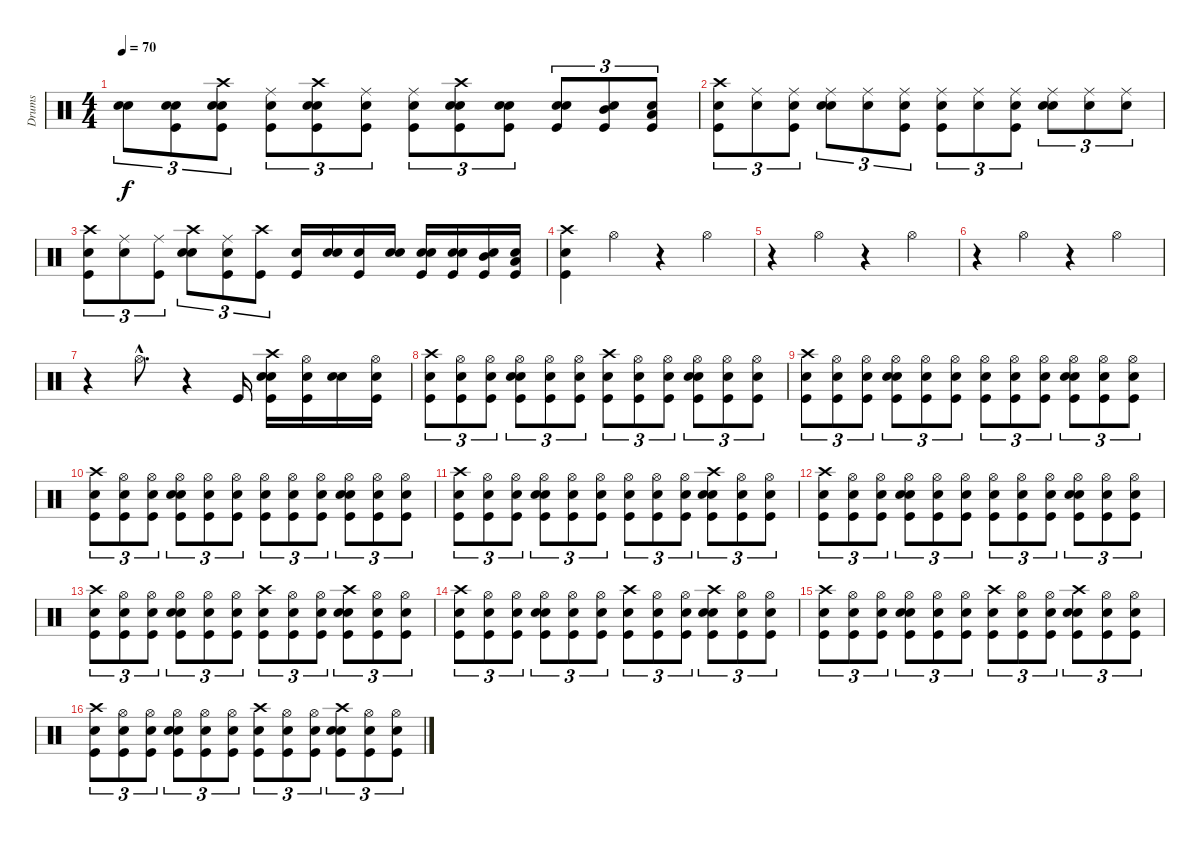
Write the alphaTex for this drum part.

\track ("Drums" "Drums") {instrument percussion}
\staff {score}
\articulation defaults
\ts (4 4)
\tempo 70
\clef neutral
\ks c
("Snare (hit)" "Snare (hit) 2").8{tu (3 2) dy f} ("Snare (hit)" "Snare (hit) 2" "Kick (hit)").8{tu (3 2)} ("Snare (hit)" "Crash high (hit)" "Snare (hit) 2" "Kick (hit)").8{tu (3 2)} ("Snare (hit)" "Ride (middle)" "Kick (hit)").8{tu (3 2)} ("Snare (hit)" "Kick (hit)" "Snare (hit) 2" "Crash high (hit)").8{tu (3 2)} ("Snare (hit)" "Ride (middle)" "Kick (hit)").8{tu (3 2)} ("Snare (hit)" "Ride (middle)" "Kick (hit)").8{tu (3 2)} ("Snare (hit)" "Kick (hit)" "Snare (hit) 2" "Crash high (hit)").8{tu (3 2)} ("Snare (hit)" "Snare (hit) 2" "Kick (hit)").8{tu (3 2)} ("Snare (hit)" "Snare (hit) 2" "Kick (hit)").8{tu (3 2)} ("Snare (hit)" "Mid Tom (hit)" "Kick (hit)").8{tu (3 2)} ("Snare (hit)" "Low Tom (hit)" "Kick (hit)").8{tu (3 2)} |
("Snare (hit)" "Kick (hit)" "Crash high (hit)").8{tu (3 2)} ("Snare (hit)" "Ride (middle)").8{tu (3 2)} ("Snare (hit)" "Kick (hit)" "Ride (middle)").8{tu (3 2)} ("Snare (hit)" "Snare (hit) 2" "Ride (middle)").8{tu (3 2)} ("Snare (hit)" "Ride (middle)").8{tu (3 2)} ("Snare (hit)" "Kick (hit)" "Ride (middle)").8{tu (3 2)} ("Snare (hit)" "Kick (hit)" "Ride (middle)").8{tu (3 2)} ("Snare (hit)" "Ride (middle)").8{tu (3 2)} ("Snare (hit)" "Kick (hit)" "Ride (middle)").8{tu (3 2)} ("Snare (hit)" "Snare (hit) 2" "Ride (middle)").8{tu (3 2)} ("Snare (hit)" "Ride (middle)").8{tu (3 2)} ("Snare (hit)" "Ride (middle)").8{tu (3 2)} |
("Snare (hit)" "Kick (hit)" "Crash high (hit)").8{tu (3 2)} ("Snare (hit)" "Ride (middle)").8{tu (3 2)} ("Kick (hit)" "Ride (middle)").8{tu (3 2)} ("Snare (hit)" "Snare (hit) 2" "Crash high (hit)").8{tu (3 2)} ("Snare (hit)" "Kick (hit)" "Ride (middle)").8{tu (3 2)} ("Kick (hit)" "Crash high (hit)").8{tu (3 2)} ("Snare (hit)" "Kick (hit)").16 ("Snare (hit)" "Snare (hit) 2").16 ("Snare (hit)" "Kick (hit)").16 ("Snare (hit)" "Snare (hit) 2").16 ("Snare (hit)" "Snare (hit) 2" "Kick (hit)").16 ("Snare (hit)" "Snare (hit) 2" "Kick (hit)").16 ("Snare (hit)" "Mid Tom (hit)" "Kick (hit)").16 ("Snare (hit)" "Low Tom (hit)" "Kick (hit)").16 |
("Snare (hit)" "Kick (hit)" "Crash high (hit)").4 "Hi-Hat (open)".4 r.4 "Hi-Hat (open)".4 |
r.4 "Hi-Hat (open)".4 r.4 "Hi-Hat (open)".4 |
r.4 "Hi-Hat (open)".4 r.4 "Hi-Hat (open)".4 |
r.4 "Hi-Hat (open)"{hac}.8{d} r.4 "Kick (hit)".16 ("Snare (hit)" "Kick (hit)" "Snare (hit) 2" "Crash high (hit)").16 ("Snare (hit)" "Hi-Hat (open)" "Kick (hit)").16 ("Snare (hit)" "Snare (hit) 2").16 ("Snare (hit)" "Hi-Hat (open)" "Kick (hit)").16 |
("Snare (hit)" "Crash high (hit)" "Kick (hit)").8{tu (3 2)} ("Snare (hit)" "Kick (hit)" "Hi-Hat (open)").8{tu (3 2)} ("Snare (hit)" "Kick (hit)" "Hi-Hat (open)").8{tu (3 2)} ("Snare (hit)" "Hi-Hat (open)" "Snare (hit) 2" "Kick (hit)").8{tu (3 2)} ("Snare (hit)" "Kick (hit)" "Hi-Hat (open)").8{tu (3 2)} ("Snare (hit)" "Kick (hit)" "Hi-Hat (open)").8{tu (3 2)} ("Snare (hit)" "Kick (hit)" "Crash high (hit)").8{tu (3 2)} ("Snare (hit)" "Kick (hit)" "Hi-Hat (open)").8{tu (3 2)} ("Snare (hit)" "Kick (hit)" "Hi-Hat (open)").8{tu (3 2)} ("Snare (hit)" "Hi-Hat (open)" "Snare (hit) 2" "Kick (hit)").8{tu (3 2)} ("Snare (hit)" "Kick (hit)" "Hi-Hat (open)").8{tu (3 2)} ("Snare (hit)" "Kick (hit)" "Hi-Hat (open)").8{tu (3 2)} |
("Snare (hit)" "Crash high (hit)" "Kick (hit)").8{tu (3 2)} ("Snare (hit)" "Kick (hit)" "Hi-Hat (open)").8{tu (3 2)} ("Snare (hit)" "Kick (hit)" "Hi-Hat (open)").8{tu (3 2)} ("Snare (hit)" "Hi-Hat (open)" "Snare (hit) 2" "Kick (hit)").8{tu (3 2)} ("Snare (hit)" "Kick (hit)" "Hi-Hat (open)").8{tu (3 2)} ("Snare (hit)" "Kick (hit)" "Hi-Hat (open)").8{tu (3 2)} ("Snare (hit)" "Kick (hit)" "Hi-Hat (open)").8{tu (3 2)} ("Snare (hit)" "Kick (hit)" "Hi-Hat (open)").8{tu (3 2)} ("Snare (hit)" "Kick (hit)" "Hi-Hat (open)").8{tu (3 2)} ("Snare (hit)" "Hi-Hat (open)" "Snare (hit) 2" "Kick (hit)").8{tu (3 2)} ("Snare (hit)" "Kick (hit)" "Hi-Hat (open)").8{tu (3 2)} ("Snare (hit)" "Kick (hit)" "Hi-Hat (open)").8{tu (3 2)} |
("Snare (hit)" "Crash high (hit)" "Kick (hit)").8{tu (3 2)} ("Snare (hit)" "Kick (hit)" "Hi-Hat (open)").8{tu (3 2)} ("Snare (hit)" "Kick (hit)" "Hi-Hat (open)").8{tu (3 2)} ("Snare (hit)" "Hi-Hat (open)" "Snare (hit) 2" "Kick (hit)").8{tu (3 2)} ("Snare (hit)" "Kick (hit)" "Hi-Hat (open)").8{tu (3 2)} ("Snare (hit)" "Kick (hit)" "Hi-Hat (open)").8{tu (3 2)} ("Snare (hit)" "Kick (hit)" "Hi-Hat (open)").8{tu (3 2)} ("Snare (hit)" "Kick (hit)" "Hi-Hat (open)").8{tu (3 2)} ("Snare (hit)" "Kick (hit)" "Hi-Hat (open)").8{tu (3 2)} ("Snare (hit)" "Hi-Hat (open)" "Snare (hit) 2" "Kick (hit)").8{tu (3 2)} ("Snare (hit)" "Kick (hit)" "Hi-Hat (open)").8{tu (3 2)} ("Snare (hit)" "Kick (hit)" "Hi-Hat (open)").8{tu (3 2)} |
("Snare (hit)" "Crash high (hit)" "Kick (hit)").8{tu (3 2)} ("Snare (hit)" "Kick (hit)" "Hi-Hat (open)").8{tu (3 2)} ("Snare (hit)" "Kick (hit)" "Hi-Hat (open)").8{tu (3 2)} ("Snare (hit)" "Hi-Hat (open)" "Snare (hit) 2" "Kick (hit)").8{tu (3 2)} ("Snare (hit)" "Kick (hit)" "Hi-Hat (open)").8{tu (3 2)} ("Snare (hit)" "Kick (hit)" "Hi-Hat (open)").8{tu (3 2)} ("Snare (hit)" "Kick (hit)" "Hi-Hat (open)").8{tu (3 2)} ("Snare (hit)" "Kick (hit)" "Hi-Hat (open)").8{tu (3 2)} ("Snare (hit)" "Kick (hit)" "Hi-Hat (open)").8{tu (3 2)} ("Snare (hit)" "Crash high (hit)" "Snare (hit) 2" "Kick (hit)").8{tu (3 2)} ("Snare (hit)" "Kick (hit)" "Hi-Hat (open)").8{tu (3 2)} ("Snare (hit)" "Kick (hit)" "Hi-Hat (open)").8{tu (3 2)} |
("Snare (hit)" "Crash high (hit)" "Kick (hit)").8{tu (3 2)} ("Snare (hit)" "Kick (hit)" "Hi-Hat (open)").8{tu (3 2)} ("Snare (hit)" "Kick (hit)" "Hi-Hat (open)").8{tu (3 2)} ("Snare (hit)" "Hi-Hat (open)" "Snare (hit) 2" "Kick (hit)").8{tu (3 2)} ("Snare (hit)" "Kick (hit)" "Hi-Hat (open)").8{tu (3 2)} ("Snare (hit)" "Kick (hit)" "Hi-Hat (open)").8{tu (3 2)} ("Snare (hit)" "Kick (hit)" "Hi-Hat (open)").8{tu (3 2)} ("Snare (hit)" "Kick (hit)" "Hi-Hat (open)").8{tu (3 2)} ("Snare (hit)" "Kick (hit)" "Hi-Hat (open)").8{tu (3 2)} ("Snare (hit)" "Hi-Hat (open)" "Snare (hit) 2" "Kick (hit)").8{tu (3 2)} ("Snare (hit)" "Kick (hit)" "Hi-Hat (open)").8{tu (3 2)} ("Snare (hit)" "Kick (hit)" "Hi-Hat (open)").8{tu (3 2)} |
("Snare (hit)" "Crash high (hit)" "Kick (hit)").8{tu (3 2)} ("Snare (hit)" "Kick (hit)" "Hi-Hat (open)").8{tu (3 2)} ("Snare (hit)" "Kick (hit)" "Hi-Hat (open)").8{tu (3 2)} ("Snare (hit)" "Hi-Hat (open)" "Snare (hit) 2" "Kick (hit)").8{tu (3 2)} ("Snare (hit)" "Kick (hit)" "Hi-Hat (open)").8{tu (3 2)} ("Snare (hit)" "Kick (hit)" "Hi-Hat (open)").8{tu (3 2)} ("Snare (hit)" "Kick (hit)" "Crash high (hit)").8{tu (3 2)} ("Snare (hit)" "Kick (hit)" "Hi-Hat (open)").8{tu (3 2)} ("Snare (hit)" "Kick (hit)" "Hi-Hat (open)").8{tu (3 2)} ("Snare (hit)" "Crash high (hit)" "Snare (hit) 2" "Kick (hit)").8{tu (3 2)} ("Snare (hit)" "Kick (hit)" "Hi-Hat (open)").8{tu (3 2)} ("Snare (hit)" "Kick (hit)" "Hi-Hat (open)").8{tu (3 2)} |
("Snare (hit)" "Crash high (hit)" "Kick (hit)").8{tu (3 2)} ("Snare (hit)" "Kick (hit)" "Hi-Hat (open)").8{tu (3 2)} ("Snare (hit)" "Kick (hit)" "Hi-Hat (open)").8{tu (3 2)} ("Snare (hit)" "Hi-Hat (open)" "Snare (hit) 2" "Kick (hit)").8{tu (3 2)} ("Snare (hit)" "Kick (hit)" "Hi-Hat (open)").8{tu (3 2)} ("Snare (hit)" "Kick (hit)" "Hi-Hat (open)").8{tu (3 2)} ("Snare (hit)" "Kick (hit)" "Crash high (hit)").8{tu (3 2)} ("Snare (hit)" "Kick (hit)" "Hi-Hat (open)").8{tu (3 2)} ("Snare (hit)" "Kick (hit)" "Hi-Hat (open)").8{tu (3 2)} ("Snare (hit)" "Crash high (hit)" "Snare (hit) 2" "Kick (hit)").8{tu (3 2)} ("Snare (hit)" "Kick (hit)" "Hi-Hat (open)").8{tu (3 2)} ("Snare (hit)" "Kick (hit)" "Hi-Hat (open)").8{tu (3 2)} |
("Snare (hit)" "Crash high (hit)" "Kick (hit)").8{tu (3 2)} ("Snare (hit)" "Kick (hit)" "Hi-Hat (open)").8{tu (3 2)} ("Snare (hit)" "Kick (hit)" "Hi-Hat (open)").8{tu (3 2)} ("Snare (hit)" "Hi-Hat (open)" "Snare (hit) 2" "Kick (hit)").8{tu (3 2)} ("Snare (hit)" "Kick (hit)" "Hi-Hat (open)").8{tu (3 2)} ("Snare (hit)" "Kick (hit)" "Hi-Hat (open)").8{tu (3 2)} ("Snare (hit)" "Kick (hit)" "Crash high (hit)").8{tu (3 2)} ("Snare (hit)" "Kick (hit)" "Hi-Hat (open)").8{tu (3 2)} ("Snare (hit)" "Kick (hit)" "Hi-Hat (open)").8{tu (3 2)} ("Snare (hit)" "Crash high (hit)" "Snare (hit) 2" "Kick (hit)").8{tu (3 2)} ("Snare (hit)" "Kick (hit)" "Hi-Hat (open)").8{tu (3 2)} ("Snare (hit)" "Kick (hit)" "Hi-Hat (open)").8{tu (3 2)} |
("Snare (hit)" "Crash high (hit)" "Kick (hit)").8{tu (3 2)} ("Snare (hit)" "Kick (hit)" "Hi-Hat (open)").8{tu (3 2)} ("Snare (hit)" "Kick (hit)" "Hi-Hat (open)").8{tu (3 2)} ("Snare (hit)" "Hi-Hat (open)" "Snare (hit) 2" "Kick (hit)").8{tu (3 2)} ("Snare (hit)" "Kick (hit)" "Hi-Hat (open)").8{tu (3 2)} ("Snare (hit)" "Kick (hit)" "Hi-Hat (open)").8{tu (3 2)} ("Snare (hit)" "Kick (hit)" "Crash high (hit)").8{tu (3 2)} ("Snare (hit)" "Kick (hit)" "Hi-Hat (open)").8{tu (3 2)} ("Snare (hit)" "Kick (hit)" "Hi-Hat (open)").8{tu (3 2)} ("Snare (hit)" "Crash high (hit)" "Snare (hit) 2" "Kick (hit)").8{tu (3 2)} ("Snare (hit)" "Kick (hit)" "Hi-Hat (open)").8{tu (3 2)} ("Snare (hit)" "Kick (hit)" "Hi-Hat (open)").8{tu (3 2)}
